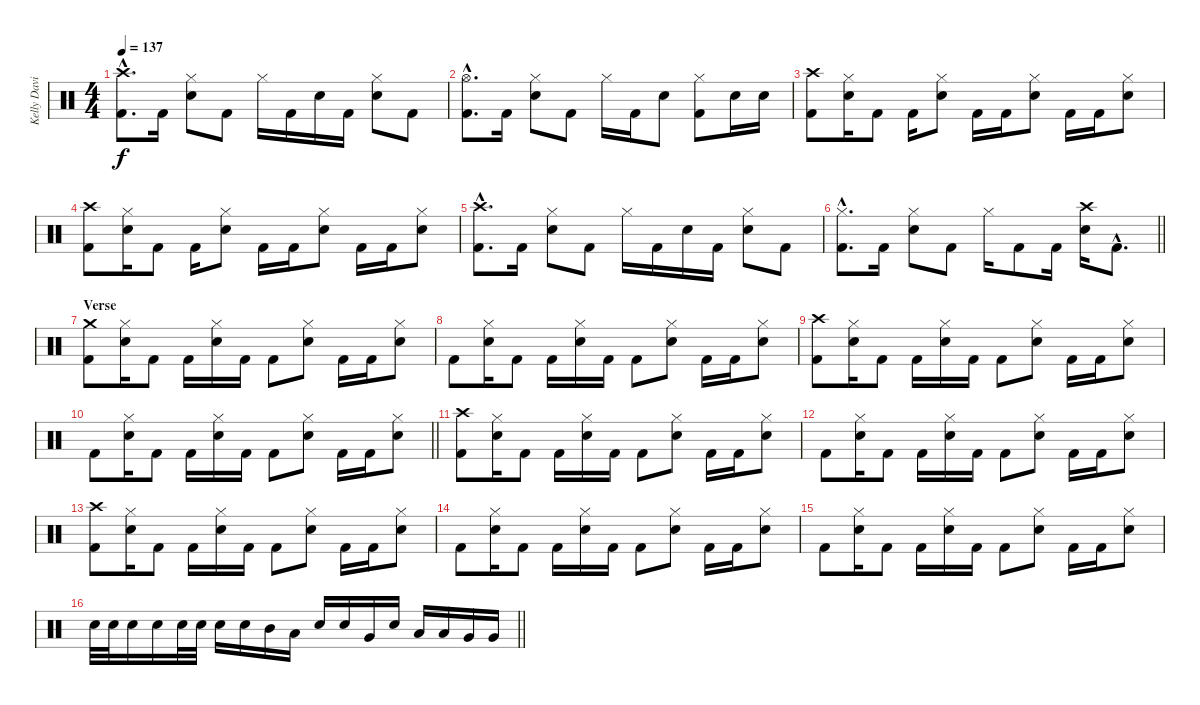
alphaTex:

\track ("Kelly David Smith" "Kelly Davi") {instrument percussion}
\staff {score}
\articulation defaults
\ts (4 4)
\tempo 137
\clef neutral
\ks c
("Crash high (hit)"{hac} "Kick (hit) 2"{hac}).8{d dy f} "Kick (hit) 2".16 ("Hi-Hat (closed)" "Snare (hit) 2").8 "Kick (hit) 2".8 "Hi-Hat (closed)".16 "Kick (hit) 2".16 "Snare (hit) 2".16 "Kick (hit) 2".16 ("Hi-Hat (closed)" "Snare (hit) 2").8 "Kick (hit) 2".8 |
("Hi-Hat (open)"{hac} "Kick (hit) 2"{hac}).8{d} "Kick (hit) 2".16 ("Hi-Hat (closed)" "Snare (hit) 2").8 "Kick (hit) 2".8 "Hi-Hat (closed)".16 "Kick (hit) 2".16 "Snare (hit) 2".8 ("Hi-Hat (closed)" "Kick (hit) 2").8 "Snare (hit) 2".16 "Snare (hit) 2".16 |
("Crash high (hit)" "Kick (hit) 2").8 ("Hi-Hat (closed)" "Snare (hit) 2").16 "Kick (hit) 2".8 "Kick (hit) 2".16 ("Hi-Hat (closed)" "Snare (hit) 2").8 "Kick (hit) 2".16 "Kick (hit) 2".16 ("Hi-Hat (closed)" "Snare (hit) 2").8 "Kick (hit) 2".16 "Kick (hit) 2".16 ("Hi-Hat (closed)" "Snare (hit) 2").8 |
("Crash high (hit)" "Kick (hit) 2").8 ("Hi-Hat (closed)" "Snare (hit) 2").16 "Kick (hit) 2".8 "Kick (hit) 2".16 ("Hi-Hat (closed)" "Snare (hit) 2").8 "Kick (hit) 2".16 "Kick (hit) 2".16 ("Hi-Hat (closed)" "Snare (hit) 2").8 "Kick (hit) 2".16 "Kick (hit) 2".16 ("Hi-Hat (closed)" "Snare (hit) 2").8 |
("Crash high (hit)"{hac} "Kick (hit) 2"{hac}).8{d} "Kick (hit) 2".16 ("Hi-Hat (closed)" "Snare (hit) 2").8 "Kick (hit) 2".8 "Hi-Hat (closed)".16 "Kick (hit) 2".16 "Snare (hit) 2".16 "Kick (hit) 2".16 ("Hi-Hat (closed)" "Snare (hit) 2").8 "Kick (hit) 2".8 |
\barLineRight lightlight
("Hi-Hat (closed)"{hac} "Kick (hit) 2"{hac}).8{d} "Kick (hit) 2".16 ("Hi-Hat (closed)" "Snare (hit) 2").8 "Kick (hit) 2".8 "Hi-Hat (closed)".16 "Kick (hit) 2".8 "Kick (hit) 2".16 ("Crash high (hit)" "Snare (hit) 2").16 "Kick (hit) 2"{hac}.8{d} |
\section ("" "Verse")
("Crash medium (hit)" "Kick (hit) 2").8 ("Hi-Hat (closed)" "Snare (hit) 2").16 "Kick (hit) 2".8 "Kick (hit) 2".16 ("Hi-Hat (closed)" "Snare (hit) 2").16 "Kick (hit) 2".16 "Kick (hit) 2".8 ("Hi-Hat (closed)" "Snare (hit) 2").8 "Kick (hit) 2".16 "Kick (hit) 2".16 ("Hi-Hat (closed)" "Snare (hit) 2").8 |
"Kick (hit) 2".8 ("Hi-Hat (closed)" "Snare (hit) 2").16 "Kick (hit) 2".8 "Kick (hit) 2".16 ("Hi-Hat (closed)" "Snare (hit) 2").16 "Kick (hit) 2".16 "Kick (hit) 2".8 ("Hi-Hat (closed)" "Snare (hit) 2").8 "Kick (hit) 2".16 "Kick (hit) 2".16 ("Hi-Hat (closed)" "Snare (hit) 2").8 |
("Crash high (hit)" "Kick (hit) 2").8 ("Hi-Hat (closed)" "Snare (hit) 2").16 "Kick (hit) 2".8 "Kick (hit) 2".16 ("Hi-Hat (closed)" "Snare (hit) 2").16 "Kick (hit) 2".16 "Kick (hit) 2".8 ("Hi-Hat (closed)" "Snare (hit) 2").8 "Kick (hit) 2".16 "Kick (hit) 2".16 ("Hi-Hat (closed)" "Snare (hit) 2").8 |
\barLineRight lightlight "Kick (hit) 2".8
("Hi-Hat (closed)" "Snare (hit) 2").16 "Kick (hit) 2".8 "Kick (hit) 2".16 ("Hi-Hat (closed)" "Snare (hit) 2").16 "Kick (hit) 2".16 "Kick (hit) 2".8 ("Hi-Hat (closed)" "Snare (hit) 2").8 "Kick (hit) 2".16 "Kick (hit) 2".16 ("Hi-Hat (closed)" "Snare (hit) 2").8 |
("Crash high (hit)" "Kick (hit) 2").8 ("Hi-Hat (closed)" "Snare (hit) 2").16 "Kick (hit) 2".8 "Kick (hit) 2".16 ("Hi-Hat (closed)" "Snare (hit) 2").16 "Kick (hit) 2".16 "Kick (hit) 2".8 ("Hi-Hat (closed)" "Snare (hit) 2").8 "Kick (hit) 2".16 "Kick (hit) 2".16 ("Hi-Hat (closed)" "Snare (hit) 2").8 |
"Kick (hit) 2".8 ("Hi-Hat (closed)" "Snare (hit) 2").16 "Kick (hit) 2".8 "Kick (hit) 2".16 ("Hi-Hat (closed)" "Snare (hit) 2").16 "Kick (hit) 2".16 "Kick (hit) 2".8 ("Hi-Hat (closed)" "Snare (hit) 2").8 "Kick (hit) 2".16 "Kick (hit) 2".16 ("Hi-Hat (closed)" "Snare (hit) 2").8 |
("Crash high (hit)" "Kick (hit) 2").8 ("Hi-Hat (closed)" "Snare (hit) 2").16 "Kick (hit) 2".8 "Kick (hit) 2".16 ("Hi-Hat (closed)" "Snare (hit) 2").16 "Kick (hit) 2".16 "Kick (hit) 2".8 ("Hi-Hat (closed)" "Snare (hit) 2").8 "Kick (hit) 2".16 "Kick (hit) 2".16 ("Hi-Hat (closed)" "Snare (hit) 2").8 |
"Kick (hit) 2".8 ("Hi-Hat (closed)" "Snare (hit) 2").16 "Kick (hit) 2".8 "Kick (hit) 2".16 ("Hi-Hat (closed)" "Snare (hit) 2").16 "Kick (hit) 2".16 "Kick (hit) 2".8 ("Hi-Hat (closed)" "Snare (hit) 2").8 "Kick (hit) 2".16 "Kick (hit) 2".16 ("Hi-Hat (closed)" "Snare (hit) 2").8 |
"Kick (hit) 2".8 ("Hi-Hat (closed)" "Snare (hit) 2").16 "Kick (hit) 2".8 "Kick (hit) 2".16 ("Hi-Hat (closed)" "Snare (hit) 2").16 "Kick (hit) 2".16 "Kick (hit) 2".8 ("Hi-Hat (closed)" "Snare (hit) 2").8 "Kick (hit) 2".16 "Kick (hit) 2".16 ("Hi-Hat (closed)" "Snare (hit) 2").8 |
\barLineRight lightlight "Snare (hit) 2".32 "Snare (hit) 2".32 "Snare (hit) 2".16 "Snare (hit) 2".16 "Snare (hit) 2".32 "Snare (hit) 2".32 "Snare (hit) 2".16 "Snare (hit) 2".16 "Mid Tom (hit)".16 "Low Tom (hit)".16 "Snare (hit) 2".16 "Snare (hit) 2".16 "Very Low Tom (hit)".16 "Snare (hit) 2".16 "Low Tom (hit)".16 "Low Tom (hit)".16 "Very Low Tom (hit)".16 "Very Low Tom (hit)".16
